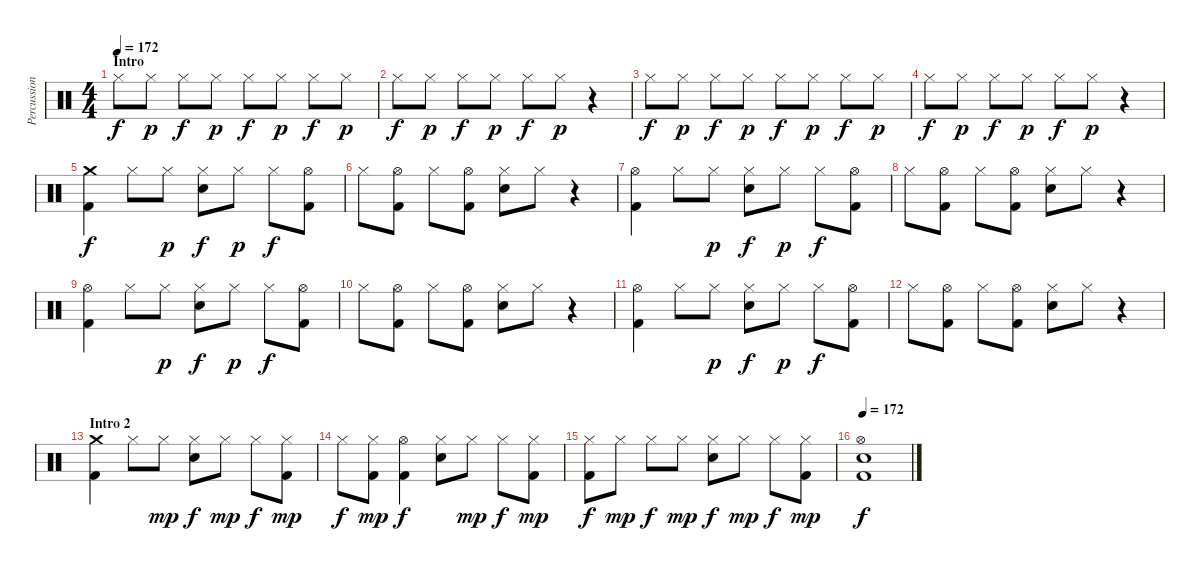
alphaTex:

\track ("Percussion" "Percussion") {instrument percussion}
\staff {score}
\articulation defaults
\ts (4 4)
\section ("" "Intro")
\tempo 172
\tempo 130
\tempo 172
\clef neutral
\ks c "Hi-Hat (closed)".8{dy f} "Hi-Hat (closed)".8{dy p} "Hi-Hat (closed)".8{dy f} "Hi-Hat (closed)".8{dy p} "Hi-Hat (closed)".8{dy f} "Hi-Hat (closed)".8{dy p} "Hi-Hat (closed)".8{dy f} "Hi-Hat (closed)".8{dy p}
|
"Hi-Hat (closed)".8{dy f} "Hi-Hat (closed)".8{dy p} "Hi-Hat (closed)".8{dy f} "Hi-Hat (closed)".8{dy p} "Hi-Hat (closed)".8{dy f} "Hi-Hat (closed)".8{dy p} r.4 |
"Hi-Hat (closed)".8{dy f} "Hi-Hat (closed)".8{dy p} "Hi-Hat (closed)".8{dy f} "Hi-Hat (closed)".8{dy p} "Hi-Hat (closed)".8{dy f} "Hi-Hat (closed)".8{dy p} "Hi-Hat (closed)".8{dy f} "Hi-Hat (closed)".8{dy p} |
"Hi-Hat (closed)".8{dy f} "Hi-Hat (closed)".8{dy p} "Hi-Hat (closed)".8{dy f} "Hi-Hat (closed)".8{dy p} "Hi-Hat (closed)".8{dy f} "Hi-Hat (closed)".8{dy p} r.4 |
("Crash medium (hit)" "Kick (hit) 2").4{dy f} "Hi-Hat (closed)".8 "Hi-Hat (closed)".8{dy p} ("Hi-Hat (closed)" "Electric Snare (hit)").8{dy f} "Hi-Hat (closed)".8{dy p} "Hi-Hat (closed)".8{dy f} ("Hi-Hat (open)" "Kick (hit) 2").8 |
"Hi-Hat (closed)".8 ("Hi-Hat (open)" "Kick (hit) 2").8 "Hi-Hat (closed)".8 ("Hi-Hat (open)" "Kick (hit) 2").8 ("Hi-Hat (closed)" "Electric Snare (hit)").8 "Hi-Hat (closed)".8 r.4 |
("Hi-Hat (open)" "Kick (hit) 2").4 "Hi-Hat (closed)".8 "Hi-Hat (closed)".8{dy p} ("Hi-Hat (closed)" "Electric Snare (hit)").8{dy f} "Hi-Hat (closed)".8{dy p} "Hi-Hat (closed)".8{dy f} ("Hi-Hat (open)" "Kick (hit) 2").8 |
"Hi-Hat (closed)".8 ("Hi-Hat (open)" "Kick (hit) 2").8 "Hi-Hat (closed)".8 ("Hi-Hat (open)" "Kick (hit) 2").8 ("Hi-Hat (closed)" "Electric Snare (hit)").8 "Hi-Hat (closed)".8 r.4 |
("Hi-Hat (open)" "Kick (hit) 2").4 "Hi-Hat (closed)".8 "Hi-Hat (closed)".8{dy p} ("Hi-Hat (closed)" "Electric Snare (hit)").8{dy f} "Hi-Hat (closed)".8{dy p} "Hi-Hat (closed)".8{dy f} ("Hi-Hat (open)" "Kick (hit) 2").8 |
"Hi-Hat (closed)".8 ("Hi-Hat (open)" "Kick (hit) 2").8 "Hi-Hat (closed)".8 ("Hi-Hat (open)" "Kick (hit) 2").8 ("Hi-Hat (closed)" "Electric Snare (hit)").8 "Hi-Hat (closed)".8 r.4 |
("Hi-Hat (open)" "Kick (hit) 2").4 "Hi-Hat (closed)".8 "Hi-Hat (closed)".8{dy p} ("Hi-Hat (closed)" "Electric Snare (hit)").8{dy f} "Hi-Hat (closed)".8{dy p} "Hi-Hat (closed)".8{dy f} ("Hi-Hat (open)" "Kick (hit) 2").8 |
"Hi-Hat (closed)".8 ("Hi-Hat (open)" "Kick (hit) 2").8 "Hi-Hat (closed)".8 ("Hi-Hat (open)" "Kick (hit) 2").8 ("Hi-Hat (closed)" "Electric Snare (hit)").8 "Hi-Hat (closed)".8 r.4 |
\section ("" "Intro 2")
("Crash medium (hit)" "Kick (hit) 2").4 "Hi-Hat (closed)".8 "Hi-Hat (closed)".8{dy mp} ("Hi-Hat (closed)" "Electric Snare (hit)").8{dy f} "Hi-Hat (closed)".8{dy mp} "Hi-Hat (closed)".8{dy f} ("Hi-Hat (closed)" "Kick (hit) 2").8{dy mp} |
"Hi-Hat (closed)".8{dy f} ("Hi-Hat (closed)" "Kick (hit) 2").8{dy mp} ("Hi-Hat (open)" "Kick (hit) 2").4{dy f} ("Hi-Hat (closed)" "Electric Snare (hit)").8 "Hi-Hat (closed)".8{dy mp} "Hi-Hat (closed)".8{dy f} ("Hi-Hat (closed)" "Kick (hit) 2").8{dy mp} |
("Hi-Hat (closed)" "Kick (hit) 2").8{dy f} "Hi-Hat (closed)".8{dy mp} "Hi-Hat (closed)".8{dy f} "Hi-Hat (closed)".8{dy mp} ("Hi-Hat (closed)" "Electric Snare (hit)").8{dy f} "Hi-Hat (closed)".8{dy mp} "Hi-Hat (closed)".8{dy f} ("Hi-Hat (closed)" "Kick (hit) 2").8{dy mp} |
\tempo 172
("Hi-Hat (open)" "Electric Snare (hit)" "Kick (hit) 2").1{dy f}
